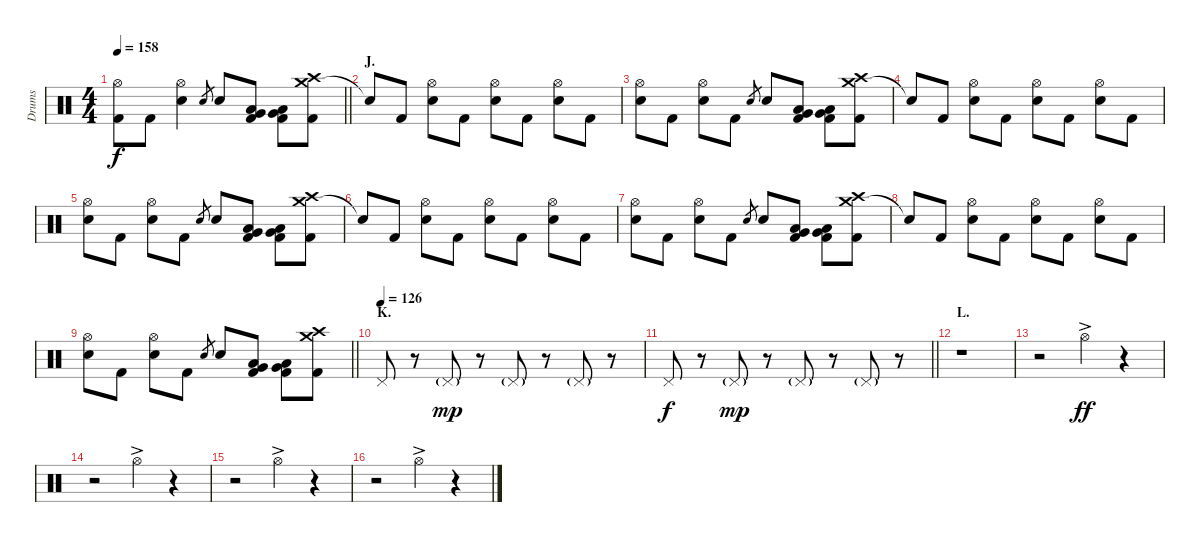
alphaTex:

\track ("Drums" "Drums") {instrument percussion}
\staff {score}
\articulation defaults
\ts (4 4)
\tempo 158
\clef neutral
\barLineRight lightlight
\ks c
("Hi-Hat (open)" "Kick (hit) 2").8{dy f} "Kick (hit) 2".8 ("Hi-Hat (open)" "Electric Snare (hit)").4 "Electric Snare (hit)".8{gr} "Electric Snare (hit)".8 ("Very Low Tom (hit)" "Low Floor Tom (hit)" "Kick (hit) 2").8 ("Very Low Tom (hit)" "Low Floor Tom (hit)" "Kick (hit) 2").8 ("Crash medium (hit)" "Crash high (hit)" "Kick (hit) 2").8 |
\section ("" "J.")
"Snare (hit)"{t}.8 "Kick (hit) 2".8 ("Hi-Hat (open)" "Electric Snare (hit)").8 "Kick (hit) 2".8 ("Hi-Hat (open)" "Electric Snare (hit)").8 "Kick (hit) 2".8 ("Hi-Hat (open)" "Electric Snare (hit)").8 "Kick (hit) 2".8 |
("Hi-Hat (open)" "Electric Snare (hit)").8 "Kick (hit) 2".8 ("Hi-Hat (open)" "Electric Snare (hit)").8 "Kick (hit) 2".8 "Electric Snare (hit)".8{gr} "Electric Snare (hit)".8 ("Very Low Tom (hit)" "Low Floor Tom (hit)" "Kick (hit) 2").8 ("Very Low Tom (hit)" "Low Floor Tom (hit)" "Kick (hit) 2").8 ("Crash medium (hit)" "Crash high (hit)" "Kick (hit) 2").8 |
"Snare (hit)"{t}.8 "Kick (hit) 2".8 ("Hi-Hat (open)" "Electric Snare (hit)").8 "Kick (hit) 2".8 ("Hi-Hat (open)" "Electric Snare (hit)").8 "Kick (hit) 2".8 ("Hi-Hat (open)" "Electric Snare (hit)").8 "Kick (hit) 2".8 |
("Hi-Hat (open)" "Electric Snare (hit)").8 "Kick (hit) 2".8 ("Hi-Hat (open)" "Electric Snare (hit)").8 "Kick (hit) 2".8 "Electric Snare (hit)".8{gr} "Electric Snare (hit)".8 ("Very Low Tom (hit)" "Low Floor Tom (hit)" "Kick (hit) 2").8 ("Very Low Tom (hit)" "Low Floor Tom (hit)" "Kick (hit) 2").8 ("Crash medium (hit)" "Crash high (hit)" "Kick (hit) 2").8 |
"Snare (hit)"{t}.8 "Kick (hit) 2".8 ("Hi-Hat (open)" "Electric Snare (hit)").8 "Kick (hit) 2".8 ("Hi-Hat (open)" "Electric Snare (hit)").8 "Kick (hit) 2".8 ("Hi-Hat (open)" "Electric Snare (hit)").8 "Kick (hit) 2".8 |
("Hi-Hat (open)" "Electric Snare (hit)").8 "Kick (hit) 2".8 ("Hi-Hat (open)" "Electric Snare (hit)").8 "Kick (hit) 2".8 "Electric Snare (hit)".8{gr} "Electric Snare (hit)".8 ("Very Low Tom (hit)" "Low Floor Tom (hit)" "Kick (hit) 2").8 ("Very Low Tom (hit)" "Low Floor Tom (hit)" "Kick (hit) 2").8 ("Crash medium (hit)" "Crash high (hit)" "Kick (hit) 2").8 |
"Snare (hit)"{t}.8 "Kick (hit) 2".8 ("Hi-Hat (open)" "Electric Snare (hit)").8 "Kick (hit) 2".8 ("Hi-Hat (open)" "Electric Snare (hit)").8 "Kick (hit) 2".8 ("Hi-Hat (open)" "Electric Snare (hit)").8 "Kick (hit) 2".8 |
\barLineRight lightlight
("Hi-Hat (open)" "Electric Snare (hit)").8 "Kick (hit) 2".8 ("Hi-Hat (open)" "Electric Snare (hit)").8 "Kick (hit) 2".8 "Electric Snare (hit)".8{gr} "Electric Snare (hit)".8 ("Very Low Tom (hit)" "Low Floor Tom (hit)" "Kick (hit) 2").8 ("Very Low Tom (hit)" "Low Floor Tom (hit)" "Kick (hit) 2").8 ("Crash medium (hit)" "Crash high (hit)" "Kick (hit) 2").8 |
\section ("" "K.")
\tempo (126)
"Pedal Hi-Hat (hit)".8 r.8 "Pedal Hi-Hat (hit)"{g}.8{dy mp} r.8 "Pedal Hi-Hat (hit)"{g}.8 r.8 "Pedal Hi-Hat (hit)"{g}.8 r.8 |
\barLineRight lightlight "Pedal Hi-Hat (hit)".8{dy f}
r.8 "Pedal Hi-Hat (hit)"{g}.8{dy mp} r.8 "Pedal Hi-Hat (hit)"{g}.8 r.8 "Pedal Hi-Hat (hit)"{g}.8 r.8 |
\section ("" "L.")
r.1 |
r.2 "Hi-Hat (open)"{ac}.4{dy ff} r.4 |
r.2 "Hi-Hat (open)"{ac}.4 r.4 |
r.2 "Hi-Hat (open)"{ac}.4 r.4 |
r.2 "Hi-Hat (open)"{ac}.4 r.4
